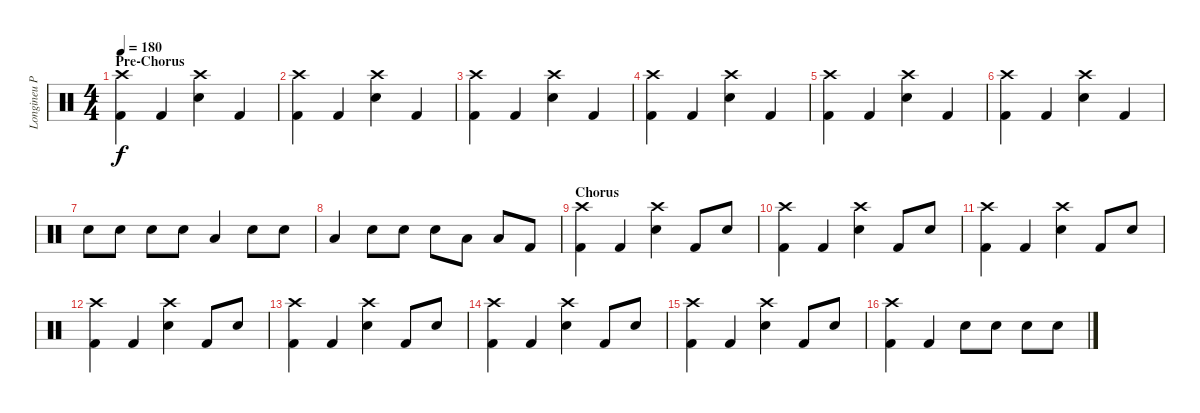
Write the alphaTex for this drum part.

\track ("Longineu Parsons III (Drums)" "Longineu P") {instrument percussion}
\staff {score}
\articulation defaults
\ts (4 4)
\section ("" "Pre-Chorus")
\tempo 180
\clef neutral
\ks c
("Crash high (hit)" "Kick (hit) 2").4{dy f} "Kick (hit) 2".4 ("Crash high (hit)" "Snare (hit) 2").4 "Kick (hit) 2".4 |
("Crash high (hit)" "Kick (hit) 2").4 "Kick (hit) 2".4 ("Crash high (hit)" "Snare (hit) 2").4 "Kick (hit) 2".4 |
("Crash high (hit)" "Kick (hit) 2").4 "Kick (hit) 2".4 ("Crash high (hit)" "Snare (hit) 2").4 "Kick (hit) 2".4 |
("Crash high (hit)" "Kick (hit) 2").4 "Kick (hit) 2".4 ("Crash high (hit)" "Snare (hit) 2").4 "Kick (hit) 2".4 |
("Crash high (hit)" "Kick (hit) 2").4 "Kick (hit) 2".4 ("Crash high (hit)" "Snare (hit) 2").4 "Kick (hit) 2".4 |
("Crash high (hit)" "Kick (hit) 2").4 "Kick (hit) 2".4 ("Crash high (hit)" "Snare (hit) 2").4 "Kick (hit) 2".4 |
"Snare (hit) 2".8 "Snare (hit) 2".8 "Snare (hit) 2".8 "Snare (hit) 2".8 "Low Tom (hit)".4 "Snare (hit) 2".8 "Snare (hit) 2".8 |
"Low Tom (hit)".4 "Snare (hit) 2".8 "Snare (hit) 2".8 "Snare (hit) 2".8 "Low Tom (hit)".8 "Low Floor Tom (hit)".8 "Kick (hit) 2".8 |
\section ("" "Chorus")
("Kick (hit) 2" "Crash high (hit)").4 "Kick (hit) 2".4 ("Snare (hit) 2" "Crash high (hit)").4 "Kick (hit) 2".8 "Snare (hit) 2".8 |
("Kick (hit) 2" "Crash high (hit)").4 "Kick (hit) 2".4 ("Snare (hit) 2" "Crash high (hit)").4 "Kick (hit) 2".8 "Snare (hit) 2".8 |
("Kick (hit) 2" "Crash high (hit)").4 "Kick (hit) 2".4 ("Snare (hit) 2" "Crash high (hit)").4 "Kick (hit) 2".8 "Snare (hit) 2".8 |
("Kick (hit) 2" "Crash high (hit)").4 "Kick (hit) 2".4 ("Snare (hit) 2" "Crash high (hit)").4 "Kick (hit) 2".8 "Snare (hit) 2".8 |
("Kick (hit) 2" "Crash high (hit)").4 "Kick (hit) 2".4 ("Snare (hit) 2" "Crash high (hit)").4 "Kick (hit) 2".8 "Snare (hit) 2".8 |
("Kick (hit) 2" "Crash high (hit)").4 "Kick (hit) 2".4 ("Snare (hit) 2" "Crash high (hit)").4 "Kick (hit) 2".8 "Snare (hit) 2".8 |
("Kick (hit) 2" "Crash high (hit)").4 "Kick (hit) 2".4 ("Snare (hit) 2" "Crash high (hit)").4 "Kick (hit) 2".8 "Snare (hit) 2".8 |
("Kick (hit) 2" "Crash high (hit)").4 "Kick (hit) 2".4 "Snare (hit) 2".8 "Snare (hit) 2".8 "Snare (hit) 2".8 "Snare (hit) 2".8
